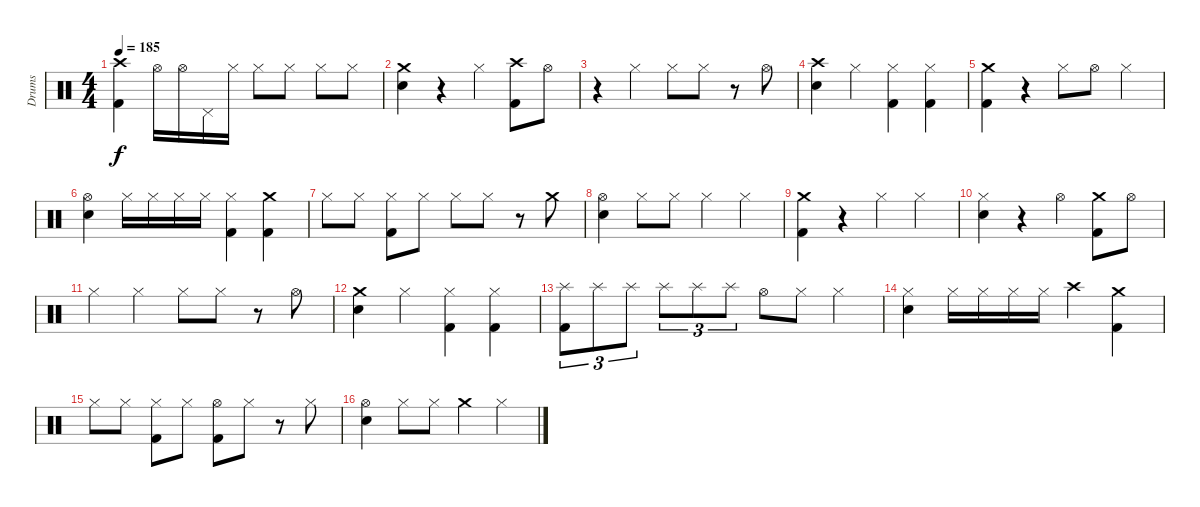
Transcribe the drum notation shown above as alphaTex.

\track ("Drums" "Drums") {instrument percussion}
\staff {score}
\articulation defaults
\ts (4 4)
\tempo 185
\clef neutral
\ks c
("Crash high (hit)" "Kick (hit) 2").4{dy f} "Hi-Hat (open)".16 "Hi-Hat (open)".16 "Pedal Hi-Hat (hit)".16 "Hi-Hat (closed)".16 "Hi-Hat (closed)".8 "Hi-Hat (closed)".8 "Hi-Hat (closed)".8 "Hi-Hat (closed)".8 |
("Crash medium (hit)" "Snare (hit) 2").4 r.4 "Hi-Hat (closed)".4 ("Crash high (hit)" "Kick (hit) 2").8 "Hi-Hat (open)".8 |
r.4 "Hi-Hat (closed)".4 "Hi-Hat (closed)".8 "Hi-Hat (closed)".8 r.8 "Hi-Hat (open)".8 |
("Crash high (hit)" "Snare (hit) 2").4 "Hi-Hat (closed)".4 ("Hi-Hat (closed)" "Kick (hit) 2").4 ("Hi-Hat (closed)" "Kick (hit) 2").4 |
("Crash medium (hit)" "Kick (hit) 2").4 r.4 "Hi-Hat (closed)".8 "Hi-Hat (open)".8 "Hi-Hat (closed)".4 |
("Hi-Hat (open)" "Snare (hit) 2").4 "Hi-Hat (closed)".16 "Hi-Hat (closed)".16 "Hi-Hat (closed)".16 "Hi-Hat (closed)".16 ("Hi-Hat (closed)" "Kick (hit) 2").4 ("Crash medium (hit)" "Kick (hit) 2").4 |
"Hi-Hat (closed)".8 "Hi-Hat (closed)".8 ("Hi-Hat (closed)" "Kick (hit) 2").8 "Hi-Hat (closed)".8 "Hi-Hat (closed)".8 "Hi-Hat (closed)".8 r.8 "Crash medium (hit)".8 |
("Hi-Hat (open)" "Snare (hit) 2").4 "Hi-Hat (closed)".8 "Hi-Hat (closed)".8 "Hi-Hat (closed)".4 "Hi-Hat (closed)".4 |
("Crash medium (hit)" "Kick (hit) 2").4 r.4 "Hi-Hat (closed)".4 "Hi-Hat (closed)".4 |
("Hi-Hat (closed)" "Snare (hit) 2").4 r.4 "Hi-Hat (open)".4 ("Crash medium (hit)" "Kick (hit) 2").8 "Hi-Hat (open)".8 |
"Hi-Hat (closed)".4 "Hi-Hat (closed)".4 "Hi-Hat (closed)".8 "Hi-Hat (closed)".8 r.8 "Hi-Hat (open)".8 |
("Crash medium (hit)" "Snare (hit) 2").4 "Hi-Hat (closed)".4 ("Hi-Hat (closed)" "Kick (hit) 2").4 ("Hi-Hat (closed)" "Kick (hit) 2").4 |
("Splash (hit)" "Kick (hit) 2").8{tu (3 2)} "Splash (hit)".8{tu (3 2)} "Splash (hit)".8{tu (3 2)} "Splash (hit)".8{tu (3 2)} "Splash (hit)".8{tu (3 2)} "Splash (hit)".8{tu (3 2)} "Hi-Hat (open)".8 "Hi-Hat (closed)".8 "Hi-Hat (closed)".4 |
("Hi-Hat (closed)" "Snare (hit) 2").4 "Hi-Hat (closed)".16 "Hi-Hat (closed)".16 "Hi-Hat (closed)".16 "Hi-Hat (closed)".16 "Crash high (hit)".4 ("Crash medium (hit)" "Kick (hit) 2").4 |
"Hi-Hat (closed)".8 "Hi-Hat (closed)".8 ("Hi-Hat (closed)" "Kick (hit) 2").8 "Hi-Hat (closed)".8 ("Hi-Hat (open)" "Kick (hit) 2").8 "Hi-Hat (closed)".8 r.8 "Hi-Hat (closed)".8 |
("Hi-Hat (open)" "Snare (hit) 2").4 "Hi-Hat (closed)".8 "Hi-Hat (closed)".8 "Crash medium (hit)".4 "Hi-Hat (closed)".4
